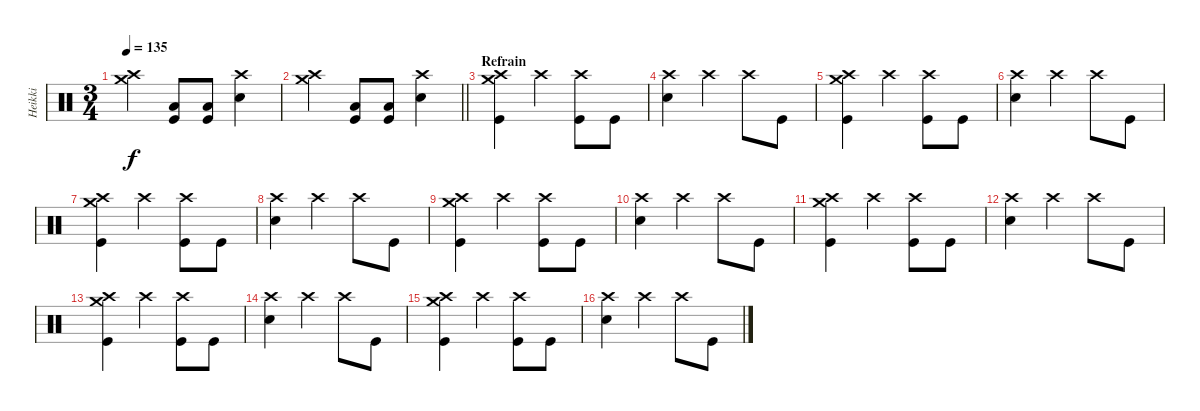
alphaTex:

\track ("Heikki" "Heikki") {instrument percussion}
\staff {score}
\articulation defaults
\ts (3 4)
\tempo 135
\clef neutral
\ks c
("Crash medium (hit)" "Crash high (hit)").4{dy f} ("Low Floor Tom (hit)" "Kick (hit)").8 ("Low Floor Tom (hit)" "Kick (hit)").8 ("Crash high (hit)" "Snare (hit) 2").4 |
\barLineRight lightlight
("Crash medium (hit)" "Crash high (hit)").4 ("Low Floor Tom (hit)" "Kick (hit)").8 ("Low Floor Tom (hit)" "Kick (hit)").8 ("Crash high (hit)" "Snare (hit) 2").4 |
\section ("" "Refrain")
("Crash high (hit)" "Crash medium (hit)" "Kick (hit)").4 "Crash high (hit)".4 ("Crash high (hit)" "Kick (hit)").8 "Kick (hit)".8 |
("Crash high (hit)" "Snare (hit) 2").4 "Crash high (hit)".4 "Crash high (hit)".8 "Kick (hit)".8 |
("Crash high (hit)" "Crash medium (hit)" "Kick (hit)").4 "Crash high (hit)".4 ("Crash high (hit)" "Kick (hit)").8 "Kick (hit)".8 |
("Crash high (hit)" "Snare (hit) 2").4 "Crash high (hit)".4 "Crash high (hit)".8 "Kick (hit)".8 |
("Crash high (hit)" "Crash medium (hit)" "Kick (hit)").4 "Crash high (hit)".4 ("Crash high (hit)" "Kick (hit)").8 "Kick (hit)".8 |
("Crash high (hit)" "Snare (hit) 2").4 "Crash high (hit)".4 "Crash high (hit)".8 "Kick (hit)".8 |
("Crash high (hit)" "Crash medium (hit)" "Kick (hit)").4 "Crash high (hit)".4 ("Crash high (hit)" "Kick (hit)").8 "Kick (hit)".8 |
("Crash high (hit)" "Snare (hit) 2").4 "Crash high (hit)".4 "Crash high (hit)".8 "Kick (hit)".8 |
("Crash high (hit)" "Crash medium (hit)" "Kick (hit)").4 "Crash high (hit)".4 ("Crash high (hit)" "Kick (hit)").8 "Kick (hit)".8 |
("Crash high (hit)" "Snare (hit) 2").4 "Crash high (hit)".4 "Crash high (hit)".8 "Kick (hit)".8 |
("Crash high (hit)" "Crash medium (hit)" "Kick (hit)").4 "Crash high (hit)".4 ("Crash high (hit)" "Kick (hit)").8 "Kick (hit)".8 |
("Crash high (hit)" "Snare (hit) 2").4 "Crash high (hit)".4 "Crash high (hit)".8 "Kick (hit)".8 |
("Crash high (hit)" "Crash medium (hit)" "Kick (hit)").4 "Crash high (hit)".4 ("Crash high (hit)" "Kick (hit)").8 "Kick (hit)".8 |
("Crash high (hit)" "Snare (hit) 2").4 "Crash high (hit)".4 "Crash high (hit)".8 "Kick (hit)".8
